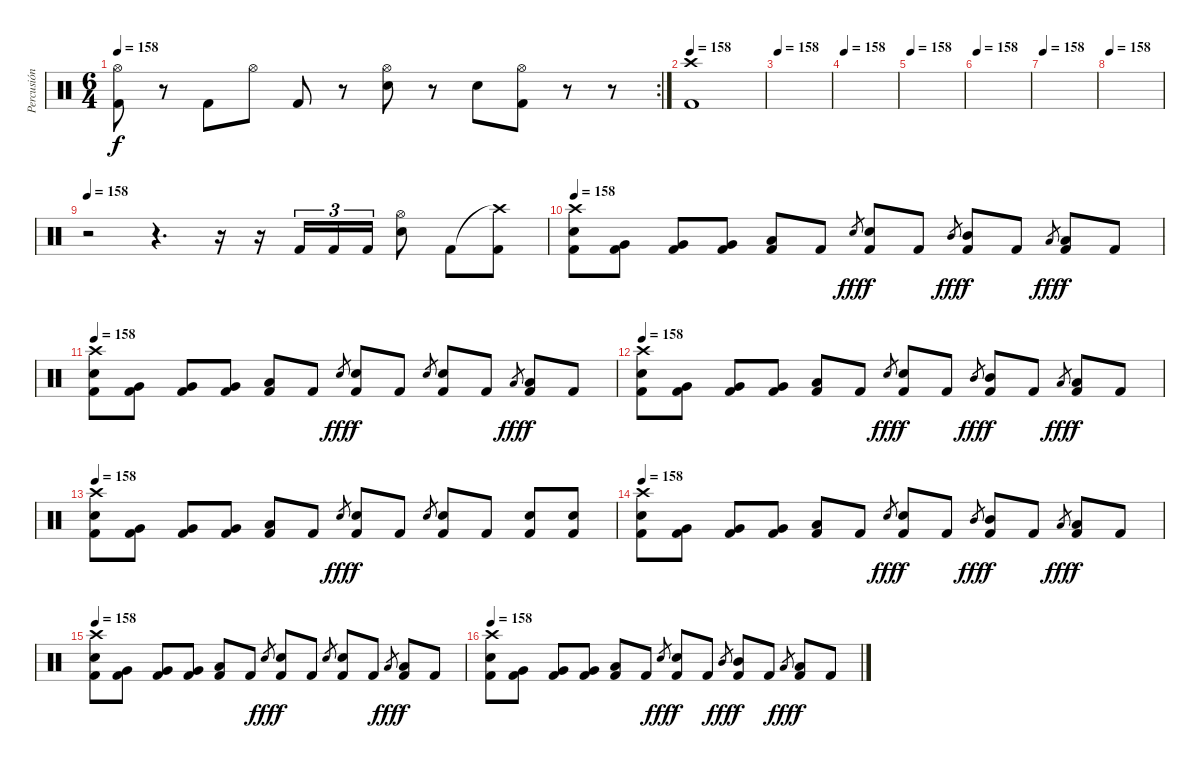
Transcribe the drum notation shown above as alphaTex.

\track ("Percusión" "Percusión") {instrument percussion}
\staff {score}
\articulation defaults
\rc 2
\ts (6 4)
\tempo 158
\clef neutral
\ks c
("Hi-Hat (open)" "Kick (hit) 2").8{dy f} r.8 "Kick (hit) 2".8 "Hi-Hat (open)".8 "Kick (hit) 2".8 r.8 ("Hi-Hat (open)" "Electric Snare (hit)").8 r.8 "Electric Snare (hit)".8 ("Hi-Hat (open)" "Kick (hit) 2").8 r.8 r.8 |
\tempo 158
("Crash high (hit)" "Kick (hit) 2").1 |
\tempo 158
|
\tempo 158
|
\tempo 158
|
\tempo 158
|
\tempo 158
|
\tempo 158
|
\tempo 158
r.2 r.4{d} r.16 r.16 "Kick (hit) 2".16{tu (3 2)} "Kick (hit) 2".16{tu (3 2)} "Kick (hit) 2".16{tu (3 2)} ("Hi-Hat (open)" "Electric Snare (hit)").8 "Kick (hit) 2".8 ("Crash high (hit)"{t} "Kick (hit) 2").8 |
\tempo 158
("Crash high (hit)" "Electric Snare (hit)" "Kick (hit) 2").8 ("Very Low Tom (hit)" "Kick (hit) 2").8 ("Very Low Tom (hit)" "Kick (hit) 2").8 ("Very Low Tom (hit)" "Kick (hit) 2").8 ("Low Tom (hit)" "Kick (hit) 2").8 "Kick (hit) 2".8 "Electric Snare (hit)".8{gr dy fff} ("Electric Snare (hit)" "Kick (hit) 2").8{dy f} "Kick (hit) 2".8 "Mid Tom (hit)".8{gr dy fff} ("Mid Tom (hit)" "Kick (hit) 2").8{dy f} "Kick (hit) 2".8 "Low Tom (hit)".8{gr dy fff} ("Low Tom (hit)" "Kick (hit) 2").8{dy f} "Kick (hit) 2".8 |
\tempo 158
("Crash high (hit)" "Electric Snare (hit)" "Kick (hit) 2").8 ("Very Low Tom (hit)" "Kick (hit) 2").8 ("Very Low Tom (hit)" "Kick (hit) 2").8 ("Very Low Tom (hit)" "Kick (hit) 2").8 ("Low Tom (hit)" "Kick (hit) 2").8 "Kick (hit) 2".8 "Electric Snare (hit)".8{gr dy fff} ("Electric Snare (hit)" "Kick (hit) 2").8{dy f} "Kick (hit) 2".8 "Electric Snare (hit)".8{gr} ("Electric Snare (hit)" "Kick (hit) 2").8 "Kick (hit) 2".8 "Low Tom (hit)".8{gr dy fff} ("Low Tom (hit)" "Kick (hit) 2").8{dy f} "Kick (hit) 2".8 |
\tempo 158
("Crash high (hit)" "Electric Snare (hit)" "Kick (hit) 2").8 ("Very Low Tom (hit)" "Kick (hit) 2").8 ("Very Low Tom (hit)" "Kick (hit) 2").8 ("Very Low Tom (hit)" "Kick (hit) 2").8 ("Low Tom (hit)" "Kick (hit) 2").8 "Kick (hit) 2".8 "Electric Snare (hit)".8{gr dy fff} ("Electric Snare (hit)" "Kick (hit) 2").8{dy f} "Kick (hit) 2".8 "Mid Tom (hit)".8{gr dy fff} ("Mid Tom (hit)" "Kick (hit) 2").8{dy f} "Kick (hit) 2".8 "Low Tom (hit)".8{gr dy fff} ("Low Tom (hit)" "Kick (hit) 2").8{dy f} "Kick (hit) 2".8 |
\tempo 158
("Crash high (hit)" "Electric Snare (hit)" "Kick (hit) 2").8 ("Very Low Tom (hit)" "Kick (hit) 2").8 ("Very Low Tom (hit)" "Kick (hit) 2").8 ("Very Low Tom (hit)" "Kick (hit) 2").8 ("Low Tom (hit)" "Kick (hit) 2").8 "Kick (hit) 2".8 "Electric Snare (hit)".8{gr dy fff} ("Electric Snare (hit)" "Kick (hit) 2").8{dy f} "Kick (hit) 2".8 "Electric Snare (hit)".8{gr} ("Electric Snare (hit)" "Kick (hit) 2").8 "Kick (hit) 2".8 ("Electric Snare (hit)" "Kick (hit) 2").8 ("Electric Snare (hit)" "Kick (hit) 2").8 |
\tempo 158
("Crash high (hit)" "Electric Snare (hit)" "Kick (hit) 2").8 ("Very Low Tom (hit)" "Kick (hit) 2").8 ("Very Low Tom (hit)" "Kick (hit) 2").8 ("Very Low Tom (hit)" "Kick (hit) 2").8 ("Low Tom (hit)" "Kick (hit) 2").8 "Kick (hit) 2".8 "Electric Snare (hit)".8{gr dy fff} ("Electric Snare (hit)" "Kick (hit) 2").8{dy f} "Kick (hit) 2".8 "Mid Tom (hit)".8{gr dy fff} ("Mid Tom (hit)" "Kick (hit) 2").8{dy f} "Kick (hit) 2".8 "Low Tom (hit)".8{gr dy fff} ("Low Tom (hit)" "Kick (hit) 2").8{dy f} "Kick (hit) 2".8 |
\tempo 158
("Crash high (hit)" "Electric Snare (hit)" "Kick (hit) 2").8 ("Very Low Tom (hit)" "Kick (hit) 2").8 ("Very Low Tom (hit)" "Kick (hit) 2").8 ("Very Low Tom (hit)" "Kick (hit) 2").8 ("Low Tom (hit)" "Kick (hit) 2").8 "Kick (hit) 2".8 "Electric Snare (hit)".8{gr dy fff} ("Electric Snare (hit)" "Kick (hit) 2").8{dy f} "Kick (hit) 2".8 "Electric Snare (hit)".8{gr} ("Electric Snare (hit)" "Kick (hit) 2").8 "Kick (hit) 2".8 "Low Tom (hit)".8{gr dy fff} ("Low Tom (hit)" "Kick (hit) 2").8{dy f} "Kick (hit) 2".8 |
\tempo 158
("Crash high (hit)" "Electric Snare (hit)" "Kick (hit) 2").8 ("Very Low Tom (hit)" "Kick (hit) 2").8 ("Very Low Tom (hit)" "Kick (hit) 2").8 ("Very Low Tom (hit)" "Kick (hit) 2").8 ("Low Tom (hit)" "Kick (hit) 2").8 "Kick (hit) 2".8 "Electric Snare (hit)".8{gr dy fff} ("Electric Snare (hit)" "Kick (hit) 2").8{dy f} "Kick (hit) 2".8 "Mid Tom (hit)".8{gr dy fff} ("Mid Tom (hit)" "Kick (hit) 2").8{dy f} "Kick (hit) 2".8 "Low Tom (hit)".8{gr dy fff} ("Low Tom (hit)" "Kick (hit) 2").8{dy f} "Kick (hit) 2".8
